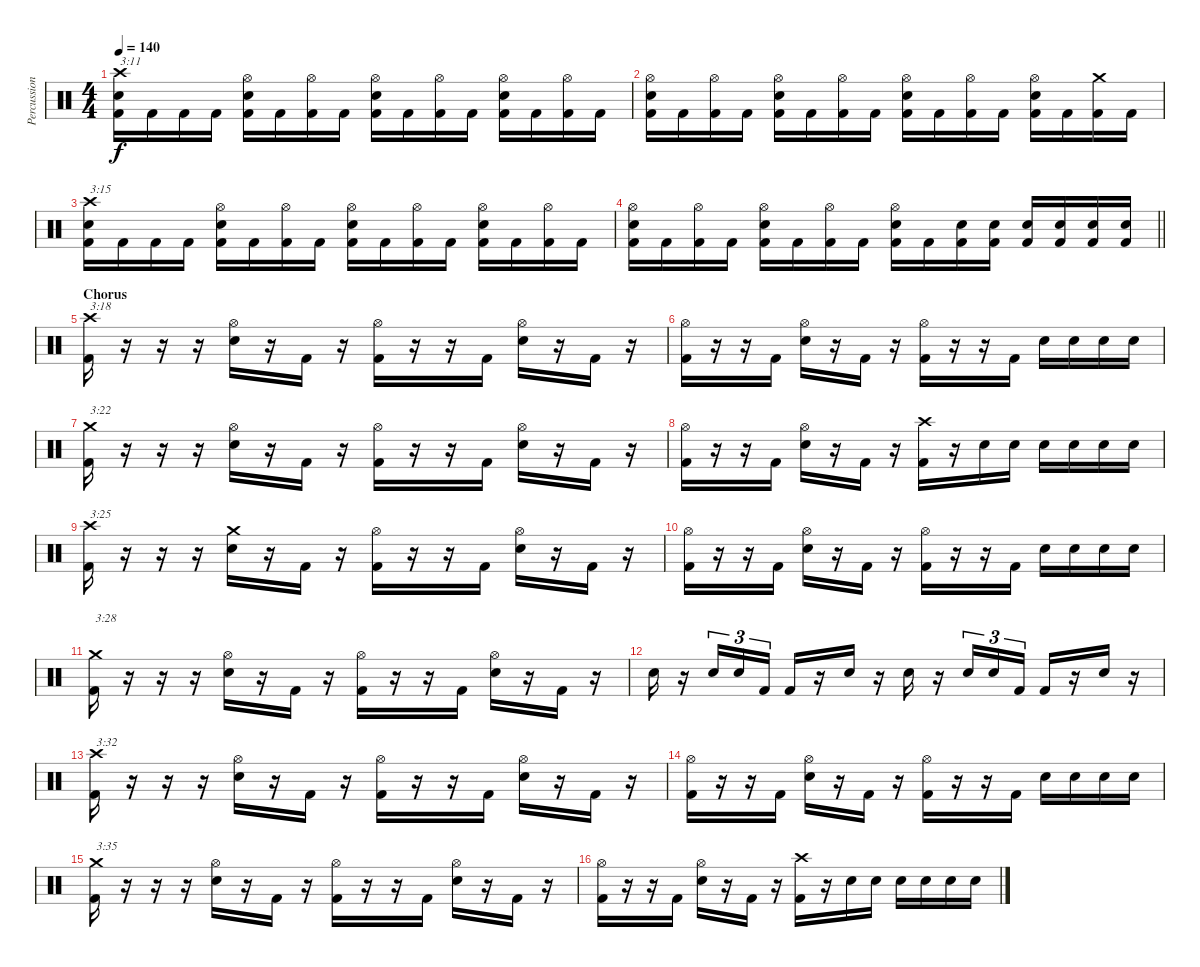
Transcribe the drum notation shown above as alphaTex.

\track ("Percussion" "Percussion") {instrument percussion}
\staff {score}
\articulation defaults
\ts (4 4)
\tempo 140
\clef neutral
\ks c
("Crash high (hit)" "Electric Snare (hit)" "Kick (hit) 2").16{txt "3:11" dy f} "Kick (hit) 2".16 "Kick (hit) 2".16 "Kick (hit) 2".16 ("Hi-Hat (open)" "Electric Snare (hit)" "Kick (hit) 2").16 "Kick (hit) 2".16 ("Hi-Hat (open)" "Kick (hit) 2").16 "Kick (hit) 2".16 ("Hi-Hat (open)" "Electric Snare (hit)" "Kick (hit) 2").16 "Kick (hit) 2".16 ("Hi-Hat (open)" "Kick (hit) 2").16 "Kick (hit) 2".16 ("Hi-Hat (open)" "Electric Snare (hit)" "Kick (hit) 2").16 "Kick (hit) 2".16 ("Hi-Hat (open)" "Kick (hit) 2").16 "Kick (hit) 2".16 |
("Hi-Hat (open)" "Electric Snare (hit)" "Kick (hit) 2").16 "Kick (hit) 2".16 ("Hi-Hat (open)" "Kick (hit) 2").16 "Kick (hit) 2".16 ("Hi-Hat (open)" "Electric Snare (hit)" "Kick (hit) 2").16 "Kick (hit) 2".16 ("Hi-Hat (open)" "Kick (hit) 2").16 "Kick (hit) 2".16 ("Hi-Hat (open)" "Electric Snare (hit)" "Kick (hit) 2").16 "Kick (hit) 2".16 ("Hi-Hat (open)" "Kick (hit) 2").16 "Kick (hit) 2".16 ("Hi-Hat (open)" "Electric Snare (hit)" "Kick (hit) 2").16 "Kick (hit) 2".16 ("Crash medium (hit)" "Kick (hit) 2").16 "Kick (hit) 2".16 |
("Crash high (hit)" "Electric Snare (hit)" "Kick (hit) 2").16{txt "3:15"} "Kick (hit) 2".16 "Kick (hit) 2".16 "Kick (hit) 2".16 ("Hi-Hat (open)" "Electric Snare (hit)" "Kick (hit) 2").16 "Kick (hit) 2".16 ("Hi-Hat (open)" "Kick (hit) 2").16 "Kick (hit) 2".16 ("Hi-Hat (open)" "Electric Snare (hit)" "Kick (hit) 2").16 "Kick (hit) 2".16 ("Hi-Hat (open)" "Kick (hit) 2").16 "Kick (hit) 2".16 ("Hi-Hat (open)" "Electric Snare (hit)" "Kick (hit) 2").16 "Kick (hit) 2".16 ("Hi-Hat (open)" "Kick (hit) 2").16 "Kick (hit) 2".16 |
\barLineRight lightlight
("Hi-Hat (open)" "Electric Snare (hit)" "Kick (hit) 2").16 "Kick (hit) 2".16 ("Hi-Hat (open)" "Kick (hit) 2").16 "Kick (hit) 2".16 ("Hi-Hat (open)" "Electric Snare (hit)" "Kick (hit) 2").16 "Kick (hit) 2".16 ("Hi-Hat (open)" "Kick (hit) 2").16 "Kick (hit) 2".16 ("Hi-Hat (open)" "Electric Snare (hit)" "Kick (hit) 2").16 "Kick (hit) 2".16 ("Electric Snare (hit)" "Kick (hit) 2").16 ("Electric Snare (hit)" "Kick (hit) 2").16 ("Electric Snare (hit)" "Kick (hit) 2").16 ("Electric Snare (hit)" "Kick (hit) 2").16 ("Electric Snare (hit)" "Kick (hit) 2").16 ("Electric Snare (hit)" "Kick (hit) 2").16 |
\section ("" "Chorus")
("Crash high (hit)" "Kick (hit) 2").16{txt "3:18"} r.16 r.16 r.16 ("Hi-Hat (open)" "Electric Snare (hit)").16 r.16 "Kick (hit) 2".16 r.16 ("Hi-Hat (open)" "Kick (hit) 2").16 r.16 r.16 "Kick (hit) 2".16 ("Hi-Hat (open)" "Electric Snare (hit)").16 r.16 "Kick (hit) 2".16 r.16 |
("Hi-Hat (open)" "Kick (hit) 2").16 r.16 r.16 "Kick (hit) 2".16 ("Hi-Hat (open)" "Electric Snare (hit)").16 r.16 "Kick (hit) 2".16 r.16 ("Hi-Hat (open)" "Kick (hit) 2").16 r.16 r.16 "Kick (hit) 2".16 "Electric Snare (hit)".16 "Electric Snare (hit)".16 "Electric Snare (hit)".16 "Electric Snare (hit)".16 |
("Crash medium (hit)" "Kick (hit) 2").16{txt "3:22"} r.16 r.16 r.16 ("Hi-Hat (open)" "Electric Snare (hit)").16 r.16 "Kick (hit) 2".16 r.16 ("Hi-Hat (open)" "Kick (hit) 2").16 r.16 r.16 "Kick (hit) 2".16 ("Hi-Hat (open)" "Electric Snare (hit)").16 r.16 "Kick (hit) 2".16 r.16 |
("Hi-Hat (open)" "Kick (hit) 2").16 r.16 r.16 "Kick (hit) 2".16 ("Hi-Hat (open)" "Electric Snare (hit)").16 r.16 "Kick (hit) 2".16 r.16 ("Crash high (hit)" "Kick (hit) 2").16 r.16 "Electric Snare (hit)".16 "Electric Snare (hit)".16 "Electric Snare (hit)".16 "Electric Snare (hit)".16 "Electric Snare (hit)".16 "Electric Snare (hit)".16 |
("Crash high (hit)" "Kick (hit) 2").16{txt "3:25"} r.16 r.16 r.16 ("Crash medium (hit)" "Electric Snare (hit)").16 r.16 "Kick (hit) 2".16 r.16 ("Hi-Hat (open)" "Kick (hit) 2").16 r.16 r.16 "Kick (hit) 2".16 ("Hi-Hat (open)" "Electric Snare (hit)").16 r.16 "Kick (hit) 2".16 r.16 |
("Hi-Hat (open)" "Kick (hit) 2").16 r.16 r.16 "Kick (hit) 2".16 ("Hi-Hat (open)" "Electric Snare (hit)").16 r.16 "Kick (hit) 2".16 r.16 ("Hi-Hat (open)" "Kick (hit) 2").16 r.16 r.16 "Kick (hit) 2".16 "Electric Snare (hit)".16 "Electric Snare (hit)".16 "Electric Snare (hit)".16 "Electric Snare (hit)".16 |
("Crash medium (hit)" "Kick (hit) 2").16{txt "3:28"} r.16 r.16 r.16 ("Hi-Hat (open)" "Electric Snare (hit)").16 r.16 "Kick (hit) 2".16 r.16 ("Hi-Hat (open)" "Kick (hit) 2").16 r.16 r.16 "Kick (hit) 2".16 ("Hi-Hat (open)" "Electric Snare (hit)").16 r.16 "Kick (hit) 2".16 r.16 |
"Electric Snare (hit)".16 r.16 "Electric Snare (hit)".16{tu (3 2)} "Electric Snare (hit)".16{tu (3 2)} "Kick (hit) 2".16{tu (3 2)} "Kick (hit) 2".16 r.16 "Electric Snare (hit)".16 r.16 "Electric Snare (hit)".16 r.16 "Electric Snare (hit)".16{tu (3 2)} "Electric Snare (hit)".16{tu (3 2)} "Kick (hit) 2".16{tu (3 2)} "Kick (hit) 2".16 r.16 "Electric Snare (hit)".16 r.16 |
("Crash high (hit)" "Kick (hit) 2").16{txt "3:32"} r.16 r.16 r.16 ("Hi-Hat (open)" "Electric Snare (hit)").16 r.16 "Kick (hit) 2".16 r.16 ("Hi-Hat (open)" "Kick (hit) 2").16 r.16 r.16 "Kick (hit) 2".16 ("Hi-Hat (open)" "Electric Snare (hit)").16 r.16 "Kick (hit) 2".16 r.16 |
("Hi-Hat (open)" "Kick (hit) 2").16 r.16 r.16 "Kick (hit) 2".16 ("Hi-Hat (open)" "Electric Snare (hit)").16 r.16 "Kick (hit) 2".16 r.16 ("Hi-Hat (open)" "Kick (hit) 2").16 r.16 r.16 "Kick (hit) 2".16 "Electric Snare (hit)".16 "Electric Snare (hit)".16 "Electric Snare (hit)".16 "Electric Snare (hit)".16 |
("Crash medium (hit)" "Kick (hit) 2").16{txt "3:35"} r.16 r.16 r.16 ("Hi-Hat (open)" "Electric Snare (hit)").16 r.16 "Kick (hit) 2".16 r.16 ("Hi-Hat (open)" "Kick (hit) 2").16 r.16 r.16 "Kick (hit) 2".16 ("Hi-Hat (open)" "Electric Snare (hit)").16 r.16 "Kick (hit) 2".16 r.16 |
("Hi-Hat (open)" "Kick (hit) 2").16 r.16 r.16 "Kick (hit) 2".16 ("Hi-Hat (open)" "Electric Snare (hit)").16 r.16 "Kick (hit) 2".16 r.16 ("Crash high (hit)" "Kick (hit) 2").16 r.16 "Electric Snare (hit)".16 "Electric Snare (hit)".16 "Electric Snare (hit)".16 "Electric Snare (hit)".16 "Electric Snare (hit)".16 "Electric Snare (hit)".16
